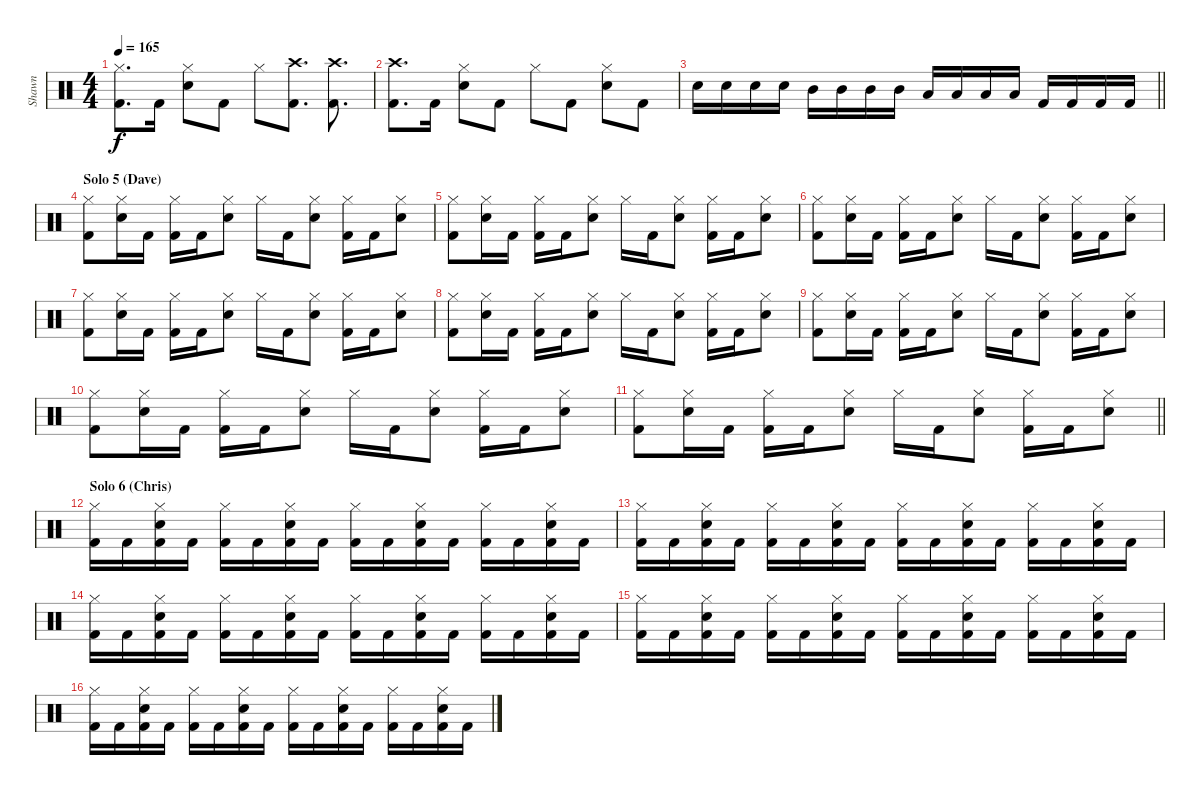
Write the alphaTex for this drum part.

\track ("Shawn" "Shawn") {instrument percussion}
\staff {score}
\articulation defaults
\ts (4 4)
\tempo 165
\clef neutral
\ks c
("Hi-Hat (closed)" "Kick (hit) 2").8{d dy f} "Kick (hit) 2".16 ("Hi-Hat (closed)" "Snare (hit) 2").8 "Kick (hit) 2".8 "Hi-Hat (closed)".8 ("Crash high (hit)" "Kick (hit) 2").8{d} ("Crash high (hit)" "Kick (hit) 2").8{d} |
("Crash high (hit)" "Kick (hit) 2").8{d} "Kick (hit) 2".16 ("Hi-Hat (closed)" "Snare (hit) 2").8 "Kick (hit) 2".8 "Hi-Hat (closed)".8 "Kick (hit) 2".8 ("Hi-Hat (closed)" "Snare (hit) 2").8 "Kick (hit) 2".8 |
\barLineRight lightlight "Snare (hit) 2".16 "Snare (hit) 2".16 "Snare (hit) 2".16 "Snare (hit) 2".16 "Mid Tom (hit)".16 "Mid Tom (hit)".16 "Mid Tom (hit)".16 "Mid Tom (hit)".16 "Low Floor Tom (hit)".16 "Low Floor Tom (hit)".16 "Low Floor Tom (hit)".16 "Low Floor Tom (hit)".16 "Kick (hit) 2".16 "Kick (hit) 2".16 "Kick (hit) 2".16 "Kick (hit) 2".16
|
\section ("" "Solo 5 (Dave)")
("Hi-Hat (closed)" "Kick (hit) 2").8 ("Hi-Hat (closed)" "Snare (hit) 2").16 "Kick (hit) 2".16 ("Hi-Hat (closed)" "Kick (hit) 2").16 "Kick (hit) 2".16 ("Hi-Hat (closed)" "Snare (hit) 2").8 "Hi-Hat (closed)".16 "Kick (hit) 2".16 ("Hi-Hat (closed)" "Snare (hit) 2").8 ("Hi-Hat (closed)" "Kick (hit) 2").16 "Kick (hit) 2".16 ("Hi-Hat (closed)" "Snare (hit) 2").8 |
("Hi-Hat (closed)" "Kick (hit) 2").8 ("Hi-Hat (closed)" "Snare (hit) 2").16 "Kick (hit) 2".16 ("Hi-Hat (closed)" "Kick (hit) 2").16 "Kick (hit) 2".16 ("Hi-Hat (closed)" "Snare (hit) 2").8 "Hi-Hat (closed)".16 "Kick (hit) 2".16 ("Hi-Hat (closed)" "Snare (hit) 2").8 ("Hi-Hat (closed)" "Kick (hit) 2").16 "Kick (hit) 2".16 ("Hi-Hat (closed)" "Snare (hit) 2").8 |
("Hi-Hat (closed)" "Kick (hit) 2").8 ("Hi-Hat (closed)" "Snare (hit) 2").16 "Kick (hit) 2".16 ("Hi-Hat (closed)" "Kick (hit) 2").16 "Kick (hit) 2".16 ("Hi-Hat (closed)" "Snare (hit) 2").8 "Hi-Hat (closed)".16 "Kick (hit) 2".16 ("Hi-Hat (closed)" "Snare (hit) 2").8 ("Hi-Hat (closed)" "Kick (hit) 2").16 "Kick (hit) 2".16 ("Hi-Hat (closed)" "Snare (hit) 2").8 |
("Hi-Hat (closed)" "Kick (hit) 2").8 ("Hi-Hat (closed)" "Snare (hit) 2").16 "Kick (hit) 2".16 ("Hi-Hat (closed)" "Kick (hit) 2").16 "Kick (hit) 2".16 ("Hi-Hat (closed)" "Snare (hit) 2").8 "Hi-Hat (closed)".16 "Kick (hit) 2".16 ("Hi-Hat (closed)" "Snare (hit) 2").8 ("Hi-Hat (closed)" "Kick (hit) 2").16 "Kick (hit) 2".16 ("Hi-Hat (closed)" "Snare (hit) 2").8 |
("Hi-Hat (closed)" "Kick (hit) 2").8 ("Hi-Hat (closed)" "Snare (hit) 2").16 "Kick (hit) 2".16 ("Hi-Hat (closed)" "Kick (hit) 2").16 "Kick (hit) 2".16 ("Hi-Hat (closed)" "Snare (hit) 2").8 "Hi-Hat (closed)".16 "Kick (hit) 2".16 ("Hi-Hat (closed)" "Snare (hit) 2").8 ("Hi-Hat (closed)" "Kick (hit) 2").16 "Kick (hit) 2".16 ("Hi-Hat (closed)" "Snare (hit) 2").8 |
("Hi-Hat (closed)" "Kick (hit) 2").8 ("Hi-Hat (closed)" "Snare (hit) 2").16 "Kick (hit) 2".16 ("Hi-Hat (closed)" "Kick (hit) 2").16 "Kick (hit) 2".16 ("Hi-Hat (closed)" "Snare (hit) 2").8 "Hi-Hat (closed)".16 "Kick (hit) 2".16 ("Hi-Hat (closed)" "Snare (hit) 2").8 ("Hi-Hat (closed)" "Kick (hit) 2").16 "Kick (hit) 2".16 ("Hi-Hat (closed)" "Snare (hit) 2").8 |
("Hi-Hat (closed)" "Kick (hit) 2").8 ("Hi-Hat (closed)" "Snare (hit) 2").16 "Kick (hit) 2".16 ("Hi-Hat (closed)" "Kick (hit) 2").16 "Kick (hit) 2".16 ("Hi-Hat (closed)" "Snare (hit) 2").8 "Hi-Hat (closed)".16 "Kick (hit) 2".16 ("Hi-Hat (closed)" "Snare (hit) 2").8 ("Hi-Hat (closed)" "Kick (hit) 2").16 "Kick (hit) 2".16 ("Hi-Hat (closed)" "Snare (hit) 2").8 |
\barLineRight lightlight
("Hi-Hat (closed)" "Kick (hit) 2").8 ("Hi-Hat (closed)" "Snare (hit) 2").16 "Kick (hit) 2".16 ("Hi-Hat (closed)" "Kick (hit) 2").16 "Kick (hit) 2".16 ("Hi-Hat (closed)" "Snare (hit) 2").8 "Hi-Hat (closed)".16 "Kick (hit) 2".16 ("Hi-Hat (closed)" "Snare (hit) 2").8 ("Hi-Hat (closed)" "Kick (hit) 2").16 "Kick (hit) 2".16 ("Hi-Hat (closed)" "Snare (hit) 2").8 |
\section ("" "Solo 6 (Chris)")
("Hi-Hat (closed)" "Kick (hit) 2").16 "Kick (hit) 2".16 ("Hi-Hat (closed)" "Snare (hit) 2" "Kick (hit) 2").16 "Kick (hit) 2".16 ("Hi-Hat (closed)" "Kick (hit) 2").16 "Kick (hit) 2".16 ("Hi-Hat (closed)" "Snare (hit) 2" "Kick (hit) 2").16 "Kick (hit) 2".16 ("Hi-Hat (closed)" "Kick (hit) 2").16 "Kick (hit) 2".16 ("Hi-Hat (closed)" "Snare (hit) 2" "Kick (hit) 2").16 "Kick (hit) 2".16 ("Hi-Hat (closed)" "Kick (hit) 2").16 "Kick (hit) 2".16 ("Hi-Hat (closed)" "Snare (hit) 2" "Kick (hit) 2").16 "Kick (hit) 2".16 |
("Hi-Hat (closed)" "Kick (hit) 2").16 "Kick (hit) 2".16 ("Hi-Hat (closed)" "Snare (hit) 2" "Kick (hit) 2").16 "Kick (hit) 2".16 ("Hi-Hat (closed)" "Kick (hit) 2").16 "Kick (hit) 2".16 ("Hi-Hat (closed)" "Snare (hit) 2" "Kick (hit) 2").16 "Kick (hit) 2".16 ("Hi-Hat (closed)" "Kick (hit) 2").16 "Kick (hit) 2".16 ("Hi-Hat (closed)" "Snare (hit) 2" "Kick (hit) 2").16 "Kick (hit) 2".16 ("Hi-Hat (closed)" "Kick (hit) 2").16 "Kick (hit) 2".16 ("Hi-Hat (closed)" "Snare (hit) 2" "Kick (hit) 2").16 "Kick (hit) 2".16 |
("Hi-Hat (closed)" "Kick (hit) 2").16 "Kick (hit) 2".16 ("Hi-Hat (closed)" "Snare (hit) 2" "Kick (hit) 2").16 "Kick (hit) 2".16 ("Hi-Hat (closed)" "Kick (hit) 2").16 "Kick (hit) 2".16 ("Hi-Hat (closed)" "Snare (hit) 2" "Kick (hit) 2").16 "Kick (hit) 2".16 ("Hi-Hat (closed)" "Kick (hit) 2").16 "Kick (hit) 2".16 ("Hi-Hat (closed)" "Snare (hit) 2" "Kick (hit) 2").16 "Kick (hit) 2".16 ("Hi-Hat (closed)" "Kick (hit) 2").16 "Kick (hit) 2".16 ("Hi-Hat (closed)" "Snare (hit) 2" "Kick (hit) 2").16 "Kick (hit) 2".16 |
("Hi-Hat (closed)" "Kick (hit) 2").16 "Kick (hit) 2".16 ("Hi-Hat (closed)" "Snare (hit) 2" "Kick (hit) 2").16 "Kick (hit) 2".16 ("Hi-Hat (closed)" "Kick (hit) 2").16 "Kick (hit) 2".16 ("Hi-Hat (closed)" "Snare (hit) 2" "Kick (hit) 2").16 "Kick (hit) 2".16 ("Hi-Hat (closed)" "Kick (hit) 2").16 "Kick (hit) 2".16 ("Hi-Hat (closed)" "Snare (hit) 2" "Kick (hit) 2").16 "Kick (hit) 2".16 ("Hi-Hat (closed)" "Kick (hit) 2").16 "Kick (hit) 2".16 ("Hi-Hat (closed)" "Snare (hit) 2" "Kick (hit) 2").16 "Kick (hit) 2".16 |
("Hi-Hat (closed)" "Kick (hit) 2").16 "Kick (hit) 2".16 ("Hi-Hat (closed)" "Snare (hit) 2" "Kick (hit) 2").16 "Kick (hit) 2".16 ("Hi-Hat (closed)" "Kick (hit) 2").16 "Kick (hit) 2".16 ("Hi-Hat (closed)" "Snare (hit) 2" "Kick (hit) 2").16 "Kick (hit) 2".16 ("Hi-Hat (closed)" "Kick (hit) 2").16 "Kick (hit) 2".16 ("Hi-Hat (closed)" "Snare (hit) 2" "Kick (hit) 2").16 "Kick (hit) 2".16 ("Hi-Hat (closed)" "Kick (hit) 2").16 "Kick (hit) 2".16 ("Hi-Hat (closed)" "Snare (hit) 2" "Kick (hit) 2").16 "Kick (hit) 2".16
